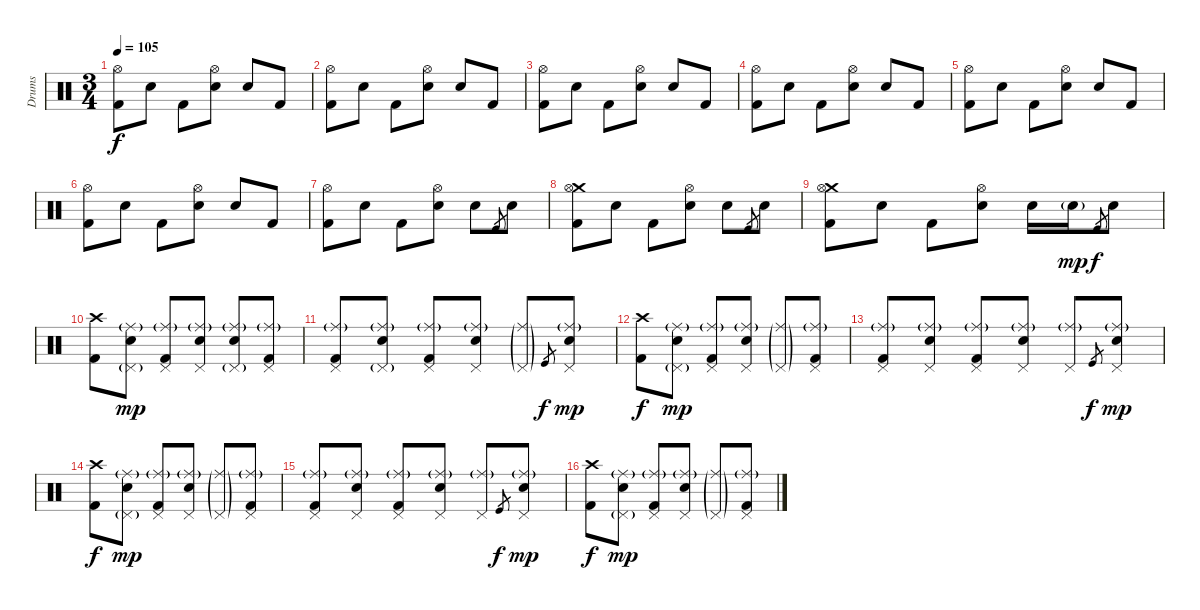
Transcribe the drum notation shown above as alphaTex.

\track ("Drums" "Drums") {instrument percussion}
\staff {score}
\articulation defaults
\ts (3 4)
\tempo 105
\clef neutral
\ks c
("Hi-Hat (open)" "Kick (hit) 2").8{dy f} "Snare (hit)".8 "Kick (hit) 2".8 ("Hi-Hat (open)" "Electric Snare (hit)").8 "Snare (hit)".8 "Kick (hit) 2".8 |
("Hi-Hat (open)" "Kick (hit) 2").8 "Snare (hit)".8 "Kick (hit) 2".8 ("Hi-Hat (open)" "Electric Snare (hit)").8 "Snare (hit)".8 "Kick (hit) 2".8 |
("Hi-Hat (open)" "Kick (hit) 2").8 "Snare (hit)".8 "Kick (hit) 2".8 ("Hi-Hat (open)" "Electric Snare (hit)").8 "Snare (hit)".8 "Kick (hit) 2".8 |
("Hi-Hat (open)" "Kick (hit) 2").8 "Snare (hit)".8 "Kick (hit) 2".8 ("Hi-Hat (open)" "Electric Snare (hit)").8 "Snare (hit)".8 "Kick (hit) 2".8 |
("Hi-Hat (open)" "Kick (hit) 2").8 "Snare (hit)".8 "Kick (hit) 2".8 ("Hi-Hat (open)" "Electric Snare (hit)").8 "Snare (hit)".8 "Kick (hit) 2".8 |
("Hi-Hat (open)" "Kick (hit) 2").8 "Snare (hit)".8 "Kick (hit) 2".8 ("Hi-Hat (open)" "Electric Snare (hit)").8 "Snare (hit)".8 "Kick (hit) 2".8 |
("Hi-Hat (open)" "Kick (hit) 2").8 "Snare (hit)".8 "Kick (hit) 2".8 ("Hi-Hat (open)" "Electric Snare (hit)").8 "Snare (hit)".8 "Kick (hit)".8{gr} "Electric Snare (hit)".8 |
("Crash medium (hit)" "Hi-Hat (open)" "Kick (hit) 2").8 "Snare (hit)".8 "Kick (hit) 2".8 ("Hi-Hat (open)" "Electric Snare (hit)").8 "Snare (hit)".8 "Kick (hit)".8{gr} "Electric Snare (hit)".8 |
("Crash medium (hit)" "Hi-Hat (open)" "Kick (hit) 2").8 "Snare (hit)".8 "Kick (hit) 2".8 ("Hi-Hat (open)" "Electric Snare (hit)").8 "Snare (hit)".16 "Electric Snare (hit)"{g}.16{dy mp} "Kick (hit)".8{gr dy f} "Electric Snare (hit)".8 |
("Crash high (hit)" "Kick (hit) 2").8 ("Ride (middle)"{g} "Pedal Hi-Hat (hit)"{g} "Snare (hit)").8{dy mp} ("Ride (middle)"{g} "Pedal Hi-Hat (hit)" "Kick (hit) 2").8 ("Ride (middle)"{g} "Pedal Hi-Hat (hit)" "Electric Snare (hit)").8 ("Ride (middle)"{g} "Pedal Hi-Hat (hit)"{g} "Snare (hit)").8 ("Ride (middle)"{g} "Pedal Hi-Hat (hit)" "Kick (hit) 2").8 |
("Ride (middle)"{g} "Pedal Hi-Hat (hit)" "Kick (hit) 2").8 ("Ride (middle)"{g} "Pedal Hi-Hat (hit)"{g} "Snare (hit)").8 ("Ride (middle)"{g} "Pedal Hi-Hat (hit)" "Kick (hit) 2").8 ("Ride (middle)"{g} "Pedal Hi-Hat (hit)" "Electric Snare (hit)").8 ("Ride (middle)"{g} "Pedal Hi-Hat (hit)"{g}).8 "Kick (hit)".8{gr dy f} ("Ride (middle)"{g} "Pedal Hi-Hat (hit)" "Electric Snare (hit)").8{dy mp} |
("Crash high (hit)" "Kick (hit) 2").8{dy f} ("Ride (middle)"{g} "Pedal Hi-Hat (hit)"{g} "Snare (hit)").8{dy mp} ("Ride (middle)"{g} "Pedal Hi-Hat (hit)" "Kick (hit) 2").8 ("Ride (middle)"{g} "Pedal Hi-Hat (hit)" "Electric Snare (hit)").8 ("Ride (middle)"{g} "Pedal Hi-Hat (hit)"{g}).8 ("Ride (middle)"{g} "Pedal Hi-Hat (hit)" "Kick (hit) 2").8 |
("Ride (middle)"{g} "Pedal Hi-Hat (hit)" "Kick (hit) 2").8 ("Ride (middle)"{g} "Pedal Hi-Hat (hit)" "Snare (hit)").8 ("Ride (middle)"{g} "Pedal Hi-Hat (hit)" "Kick (hit) 2").8 ("Ride (middle)"{g} "Pedal Hi-Hat (hit)" "Electric Snare (hit)").8 ("Ride (middle)"{g} "Pedal Hi-Hat (hit)").8 "Kick (hit)".8{gr dy f} ("Ride (middle)"{g} "Pedal Hi-Hat (hit)" "Electric Snare (hit)").8{dy mp} |
("Crash high (hit)" "Kick (hit) 2").8{dy f} ("Ride (middle)"{g} "Pedal Hi-Hat (hit)"{g} "Snare (hit)").8{dy mp} ("Ride (middle)"{g} "Pedal Hi-Hat (hit)" "Kick (hit) 2").8 ("Ride (middle)"{g} "Pedal Hi-Hat (hit)" "Electric Snare (hit)").8 ("Ride (middle)"{g} "Pedal Hi-Hat (hit)"{g}).8 ("Ride (middle)"{g} "Pedal Hi-Hat (hit)" "Kick (hit) 2").8 |
("Ride (middle)"{g} "Pedal Hi-Hat (hit)" "Kick (hit) 2").8 ("Ride (middle)"{g} "Pedal Hi-Hat (hit)" "Snare (hit)").8 ("Ride (middle)"{g} "Pedal Hi-Hat (hit)" "Kick (hit) 2").8 ("Ride (middle)"{g} "Pedal Hi-Hat (hit)" "Electric Snare (hit)").8 ("Ride (middle)"{g} "Pedal Hi-Hat (hit)").8 "Kick (hit)".8{gr dy f} ("Ride (middle)"{g} "Pedal Hi-Hat (hit)" "Electric Snare (hit)").8{dy mp} |
("Crash high (hit)" "Kick (hit) 2").8{dy f} ("Ride (middle)"{g} "Pedal Hi-Hat (hit)"{g} "Snare (hit)").8{dy mp} ("Ride (middle)"{g} "Pedal Hi-Hat (hit)" "Kick (hit) 2").8 ("Ride (middle)"{g} "Pedal Hi-Hat (hit)" "Electric Snare (hit)").8 ("Ride (middle)"{g} "Pedal Hi-Hat (hit)"{g}).8 ("Ride (middle)"{g} "Pedal Hi-Hat (hit)" "Kick (hit) 2").8
